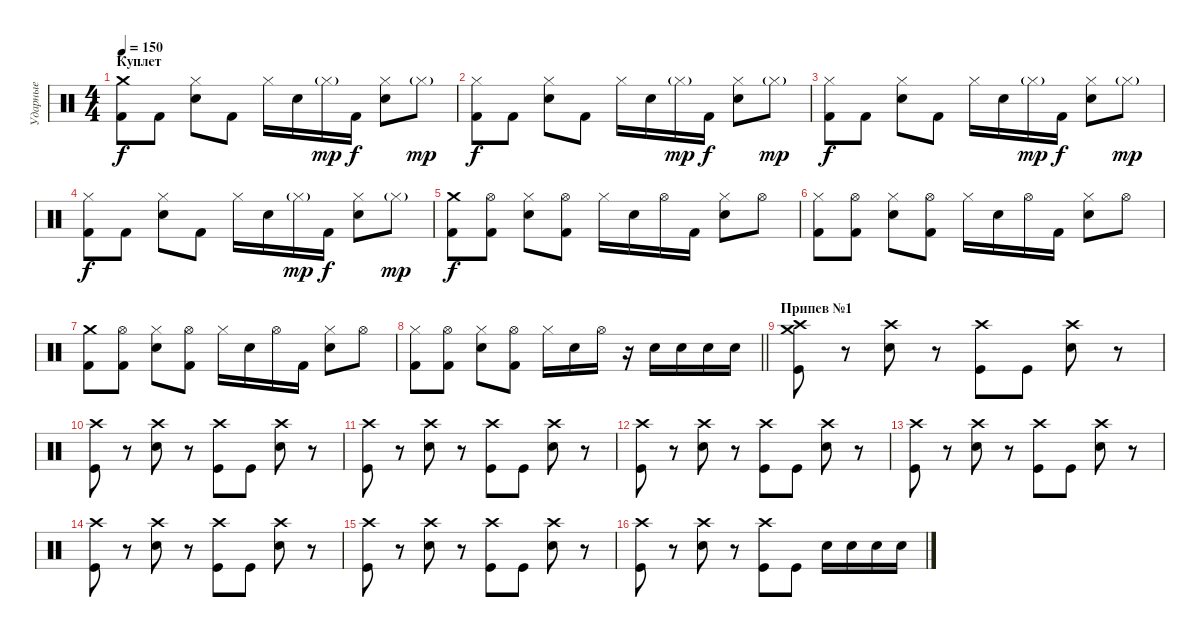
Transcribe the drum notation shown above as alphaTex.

\track ("Ударные" "Ударные") {instrument percussion}
\staff {score}
\articulation defaults
\ts (4 4)
\section ("" "Куплет")
\tempo 150
\clef neutral
\ks c
("Crash medium (hit)" "Kick (hit) 2").8{dy f} "Kick (hit) 2".8 ("Snare (hit) 2" "Hi-Hat (closed)").8 "Kick (hit) 2".8 "Hi-Hat (closed)".16 "Snare (hit) 2".16 "Hi-Hat (closed)"{g}.16{dy mp} "Kick (hit) 2".16{dy f} ("Snare (hit) 2" "Hi-Hat (closed)").8 "Hi-Hat (closed)"{g}.8{dy mp} |
("Hi-Hat (closed)" "Kick (hit) 2").8{dy f} "Kick (hit) 2".8 ("Snare (hit) 2" "Hi-Hat (closed)").8 "Kick (hit) 2".8 "Hi-Hat (closed)".16 "Snare (hit) 2".16 "Hi-Hat (closed)"{g}.16{dy mp} "Kick (hit) 2".16{dy f} ("Snare (hit) 2" "Hi-Hat (closed)").8 "Hi-Hat (closed)"{g}.8{dy mp} |
("Hi-Hat (closed)" "Kick (hit) 2").8{dy f} "Kick (hit) 2".8 ("Snare (hit) 2" "Hi-Hat (closed)").8 "Kick (hit) 2".8 "Hi-Hat (closed)".16 "Snare (hit) 2".16 "Hi-Hat (closed)"{g}.16{dy mp} "Kick (hit) 2".16{dy f} ("Snare (hit) 2" "Hi-Hat (closed)").8 "Hi-Hat (closed)"{g}.8{dy mp} |
("Hi-Hat (closed)" "Kick (hit) 2").8{dy f} "Kick (hit) 2".8 ("Snare (hit) 2" "Hi-Hat (closed)").8 "Kick (hit) 2".8 "Hi-Hat (closed)".16 "Snare (hit) 2".16 "Hi-Hat (closed)"{g}.16{dy mp} "Kick (hit) 2".16{dy f} ("Snare (hit) 2" "Hi-Hat (closed)").8 "Hi-Hat (closed)"{g}.8{dy mp} |
("Crash medium (hit)" "Kick (hit) 2").8{dy f} ("Kick (hit) 2" "Hi-Hat (open)").8 ("Snare (hit) 2" "Hi-Hat (closed)").8 ("Kick (hit) 2" "Hi-Hat (open)").8 "Hi-Hat (closed)".16 "Snare (hit) 2".16 "Hi-Hat (open)".16 "Kick (hit) 2".16 ("Snare (hit) 2" "Hi-Hat (closed)").8 "Hi-Hat (open)".8 |
("Hi-Hat (closed)" "Kick (hit) 2").8 ("Kick (hit) 2" "Hi-Hat (open)").8 ("Snare (hit) 2" "Hi-Hat (closed)").8 ("Kick (hit) 2" "Hi-Hat (open)").8 "Hi-Hat (closed)".16 "Snare (hit) 2".16 "Hi-Hat (open)".16 "Kick (hit) 2".16 ("Snare (hit) 2" "Hi-Hat (closed)").8 "Hi-Hat (open)".8 |
("Crash medium (hit)" "Kick (hit) 2").8 ("Kick (hit) 2" "Hi-Hat (open)").8 ("Snare (hit) 2" "Hi-Hat (closed)").8 ("Kick (hit) 2" "Hi-Hat (open)").8 "Hi-Hat (closed)".16 "Snare (hit) 2".16 "Hi-Hat (open)".16 "Kick (hit) 2".16 ("Snare (hit) 2" "Hi-Hat (closed)").8 "Hi-Hat (open)".8 |
\barLineRight lightlight
("Hi-Hat (closed)" "Kick (hit) 2").8 ("Kick (hit) 2" "Hi-Hat (open)").8 ("Snare (hit) 2" "Hi-Hat (closed)").8 ("Kick (hit) 2" "Hi-Hat (open)").8 "Hi-Hat (closed)".16 "Snare (hit) 2".16 "Hi-Hat (open)".16 r.16 "Snare (hit) 2".16 "Snare (hit) 2".16 "Snare (hit) 2".16 "Snare (hit) 2".16 |
\section ("" "Припев №1")
("Kick (hit)" "Crash high (hit)" "Crash medium (hit)").8 r.8 ("Electric Snare (hit)" "Crash high (hit)").8 r.8 ("Kick (hit)" "Crash high (hit)").8 "Kick (hit)".8 ("Electric Snare (hit)" "Crash high (hit)").8 r.8 |
("Kick (hit)" "Crash high (hit)").8 r.8 ("Electric Snare (hit)" "Crash high (hit)").8 r.8 ("Kick (hit)" "Crash high (hit)").8 "Kick (hit)".8 ("Electric Snare (hit)" "Crash high (hit)").8 r.8 |
("Kick (hit)" "Crash high (hit)").8 r.8 ("Electric Snare (hit)" "Crash high (hit)").8 r.8 ("Kick (hit)" "Crash high (hit)").8 "Kick (hit)".8 ("Electric Snare (hit)" "Crash high (hit)").8 r.8 |
("Kick (hit)" "Crash high (hit)").8 r.8 ("Electric Snare (hit)" "Crash high (hit)").8 r.8 ("Kick (hit)" "Crash high (hit)").8 "Kick (hit)".8 ("Electric Snare (hit)" "Crash high (hit)").8 r.8 |
("Kick (hit)" "Crash high (hit)").8 r.8 ("Electric Snare (hit)" "Crash high (hit)").8 r.8 ("Kick (hit)" "Crash high (hit)").8 "Kick (hit)".8 ("Electric Snare (hit)" "Crash high (hit)").8 r.8 |
("Kick (hit)" "Crash high (hit)").8 r.8 ("Electric Snare (hit)" "Crash high (hit)").8 r.8 ("Kick (hit)" "Crash high (hit)").8 "Kick (hit)".8 ("Electric Snare (hit)" "Crash high (hit)").8 r.8 |
("Kick (hit)" "Crash high (hit)").8 r.8 ("Electric Snare (hit)" "Crash high (hit)").8 r.8 ("Kick (hit)" "Crash high (hit)").8 "Kick (hit)".8 ("Electric Snare (hit)" "Crash high (hit)").8 r.8 |
("Kick (hit)" "Crash high (hit)").8 r.8 ("Electric Snare (hit)" "Crash high (hit)").8 r.8 ("Kick (hit)" "Crash high (hit)").8 "Kick (hit)".8 "Electric Snare (hit)".16 "Electric Snare (hit)".16 "Electric Snare (hit)".16 "Electric Snare (hit)".16
